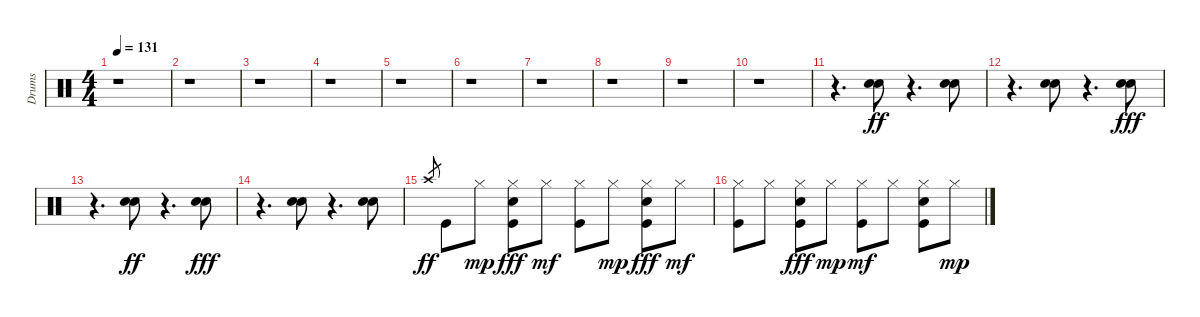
\track ("Drums" "Drums") {instrument percussion}
\staff {score}
\articulation defaults
\ts (4 4)
\tempo 131
\clef neutral
\ks c
r.1{dy ff} |
r.1 |
r.1 |
r.1 |
r.1 |
r.1 |
r.1 |
r.1 |
r.1 |
r.1 |
r.4{d} ("Snare (hit) 2" "Electric Snare (hit)").8 r.4{d} ("Snare (hit) 2" "Electric Snare (hit)").8 |
r.4{d} ("Snare (hit) 2" "Electric Snare (hit)").8 r.4{d} ("Snare (hit) 2" "Electric Snare (hit)").8{dy fff} |
r.4{d} ("Snare (hit) 2" "Electric Snare (hit)").8{dy ff} r.4{d} ("Snare (hit) 2" "Electric Snare (hit)").8{dy fff} |
r.4{d} ("Snare (hit) 2" "Electric Snare (hit)").8 r.4{d} ("Snare (hit) 2" "Electric Snare (hit)").8 |
"Crash high (hit)".8{gr dy ff} "Kick (hit)".8 "Hi-Hat (closed)".8{dy mp} ("Kick (hit)" "Snare (hit) 2" "Hi-Hat (closed)").8{dy fff} "Hi-Hat (closed)".8{dy mf} ("Kick (hit)" "Hi-Hat (closed)").8 "Hi-Hat (closed)".8{dy mp} ("Kick (hit)" "Snare (hit) 2" "Hi-Hat (closed)").8{dy fff} "Hi-Hat (closed)".8{dy mf} |
("Kick (hit)" "Hi-Hat (closed)").8 "Hi-Hat (closed)".8 ("Kick (hit)" "Snare (hit) 2" "Hi-Hat (closed)").8{dy fff} "Hi-Hat (closed)".8{dy mp} ("Kick (hit)" "Hi-Hat (closed)").8{dy mf} "Hi-Hat (closed)".8 ("Kick (hit)" "Snare (hit) 2" "Hi-Hat (closed)").8 "Hi-Hat (closed)".8{dy mp}
